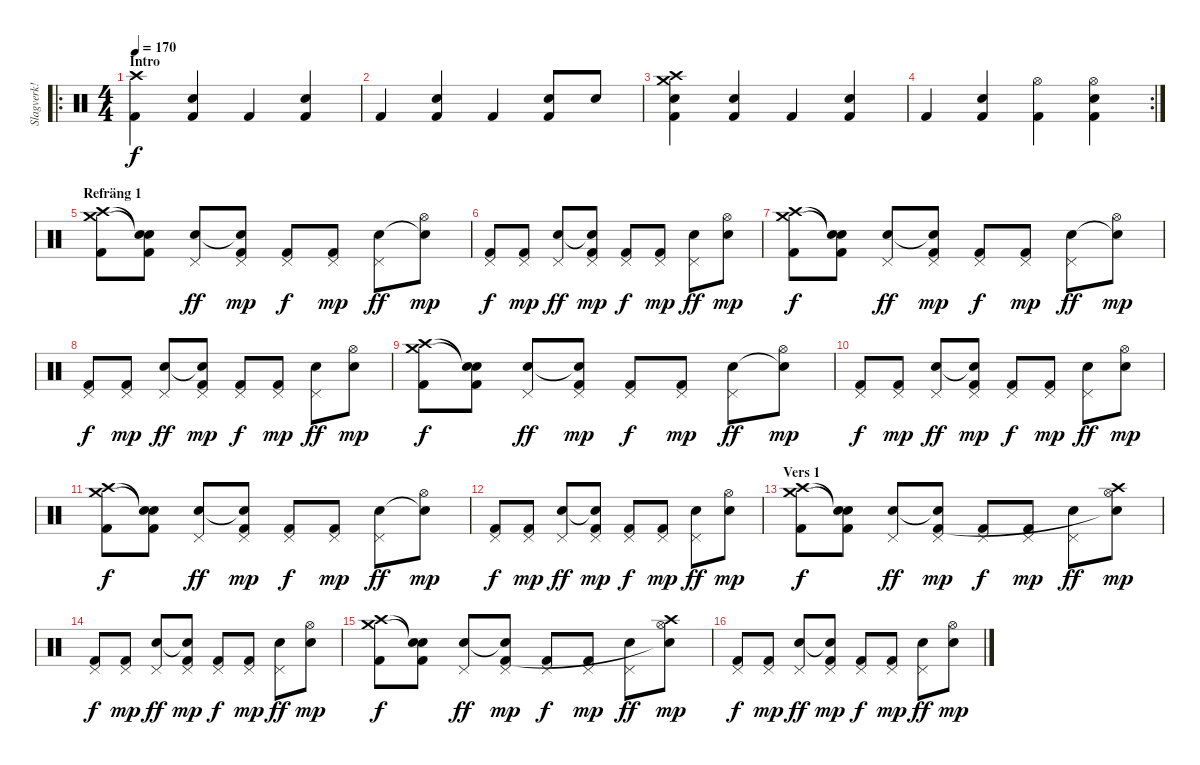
\track ("Slagverk!" "Slagverk!") {instrument percussion}
\staff {score}
\articulation defaults
\ro
\ts (4 4)
\section ("" "Intro")
\tempo 170
\clef neutral
\ks c
("Crash high (hit)" "Kick (hit) 2").4{dy f} ("Snare (hit) 2" "Kick (hit) 2").4 "Kick (hit) 2".4 ("Snare (hit) 2" "Kick (hit) 2").4 |
"Kick (hit) 2".4 ("Snare (hit) 2" "Kick (hit) 2").4 "Kick (hit) 2".4 ("Snare (hit) 2" "Kick (hit) 2").8 "Snare (hit) 2".8 |
("Crash medium (hit)" "Crash high (hit)" "Snare (hit) 2" "Kick (hit) 2").4 ("Snare (hit) 2" "Kick (hit) 2").4 "Kick (hit) 2".4 ("Snare (hit) 2" "Kick (hit) 2").4 |
\rc 2 "Kick (hit) 2".4
("Snare (hit) 2" "Kick (hit) 2").4 ("Hi-Hat (open)" "Kick (hit) 2").4 ("Hi-Hat (open)" "Snare (hit) 2" "Kick (hit) 2").4 |
\section ("" "Refräng 1")
("Crash medium (hit)" "Crash high (hit)" "Kick (hit) 2").8 ("Snare (hit)"{t} "Snare (hit)"{t} "Kick (hit) 2").8 ("Pedal Hi-Hat (hit)" "Electric Snare (hit)").8{dy ff} ("Pedal Hi-Hat (hit)" "Snare (hit)"{t} "Kick (hit) 2").8{dy mp} ("Pedal Hi-Hat (hit)" "Kick (hit) 2").8{dy f} ("Pedal Hi-Hat (hit)" "Kick (hit) 2").8{dy mp} ("Pedal Hi-Hat (hit)" "Electric Snare (hit)").8{dy ff} ("Hi-Hat (open)" "Snare (hit)"{t}).8{dy mp} |
("Pedal Hi-Hat (hit)" "Kick (hit) 2").8{dy f} ("Pedal Hi-Hat (hit)" "Kick (hit) 2").8{dy mp} ("Pedal Hi-Hat (hit)" "Electric Snare (hit)").8{dy ff} ("Pedal Hi-Hat (hit)" "Snare (hit)"{t} "Kick (hit) 2").8{dy mp} ("Pedal Hi-Hat (hit)" "Kick (hit) 2").8{dy f} ("Pedal Hi-Hat (hit)" "Kick (hit) 2").8{dy mp} ("Pedal Hi-Hat (hit)" "Electric Snare (hit)").8{dy ff} ("Hi-Hat (open)" "Electric Snare (hit)").8{dy mp} |
("Crash medium (hit)" "Crash high (hit)" "Kick (hit) 2").8{dy f} ("Snare (hit)"{t} "Snare (hit)"{t} "Kick (hit) 2").8 ("Pedal Hi-Hat (hit)" "Electric Snare (hit)").8{dy ff} ("Pedal Hi-Hat (hit)" "Snare (hit)"{t} "Kick (hit) 2").8{dy mp} ("Pedal Hi-Hat (hit)" "Kick (hit) 2").8{dy f} ("Pedal Hi-Hat (hit)" "Kick (hit) 2").8{dy mp} ("Pedal Hi-Hat (hit)" "Electric Snare (hit)").8{dy ff} ("Hi-Hat (open)" "Snare (hit)"{t}).8{dy mp} |
("Pedal Hi-Hat (hit)" "Kick (hit) 2").8{dy f} ("Pedal Hi-Hat (hit)" "Kick (hit) 2").8{dy mp} ("Pedal Hi-Hat (hit)" "Electric Snare (hit)").8{dy ff} ("Pedal Hi-Hat (hit)" "Snare (hit)"{t} "Kick (hit) 2").8{dy mp} ("Pedal Hi-Hat (hit)" "Kick (hit) 2").8{dy f} ("Pedal Hi-Hat (hit)" "Kick (hit) 2").8{dy mp} ("Pedal Hi-Hat (hit)" "Electric Snare (hit)").8{dy ff} ("Hi-Hat (open)" "Electric Snare (hit)").8{dy mp} |
("Crash medium (hit)" "Crash high (hit)" "Kick (hit) 2").8{dy f} ("Snare (hit)"{t} "Snare (hit)"{t} "Kick (hit) 2").8 ("Pedal Hi-Hat (hit)" "Electric Snare (hit)").8{dy ff} ("Pedal Hi-Hat (hit)" "Snare (hit)"{t} "Kick (hit) 2").8{dy mp} ("Pedal Hi-Hat (hit)" "Kick (hit) 2").8{dy f} ("Pedal Hi-Hat (hit)" "Kick (hit) 2").8{dy mp} ("Pedal Hi-Hat (hit)" "Electric Snare (hit)").8{dy ff} ("Hi-Hat (open)" "Snare (hit)"{t}).8{dy mp} |
("Pedal Hi-Hat (hit)" "Kick (hit) 2").8{dy f} ("Pedal Hi-Hat (hit)" "Kick (hit) 2").8{dy mp} ("Pedal Hi-Hat (hit)" "Electric Snare (hit)").8{dy ff} ("Pedal Hi-Hat (hit)" "Snare (hit)"{t} "Kick (hit) 2").8{dy mp} ("Pedal Hi-Hat (hit)" "Kick (hit) 2").8{dy f} ("Pedal Hi-Hat (hit)" "Kick (hit) 2").8{dy mp} ("Pedal Hi-Hat (hit)" "Electric Snare (hit)").8{dy ff} ("Hi-Hat (open)" "Electric Snare (hit)").8{dy mp} |
("Crash medium (hit)" "Crash high (hit)" "Kick (hit) 2").8{dy f} ("Snare (hit)"{t} "Snare (hit)"{t} "Kick (hit) 2").8 ("Pedal Hi-Hat (hit)" "Electric Snare (hit)").8{dy ff} ("Pedal Hi-Hat (hit)" "Snare (hit)"{t} "Kick (hit) 2").8{dy mp} ("Pedal Hi-Hat (hit)" "Kick (hit) 2").8{dy f} ("Pedal Hi-Hat (hit)" "Kick (hit) 2").8{dy mp} ("Pedal Hi-Hat (hit)" "Electric Snare (hit)").8{dy ff} ("Hi-Hat (open)" "Snare (hit)"{t}).8{dy mp} |
("Pedal Hi-Hat (hit)" "Kick (hit) 2").8{dy f} ("Pedal Hi-Hat (hit)" "Kick (hit) 2").8{dy mp} ("Pedal Hi-Hat (hit)" "Electric Snare (hit)").8{dy ff} ("Pedal Hi-Hat (hit)" "Snare (hit)"{t} "Kick (hit) 2").8{dy mp} ("Pedal Hi-Hat (hit)" "Kick (hit) 2").8{dy f} ("Pedal Hi-Hat (hit)" "Kick (hit) 2").8{dy mp} ("Pedal Hi-Hat (hit)" "Electric Snare (hit)").8{dy ff} ("Hi-Hat (open)" "Electric Snare (hit)").8{dy mp} |
\section ("" "Vers 1")
("Crash medium (hit)" "Crash high (hit)" "Kick (hit) 2").8{dy f} ("Snare (hit)"{t} "Snare (hit)"{t} "Kick (hit) 2").8 ("Pedal Hi-Hat (hit)" "Electric Snare (hit)").8{dy ff} ("Pedal Hi-Hat (hit)" "Snare (hit)"{t} "Kick (hit) 2").8{dy mp} ("Pedal Hi-Hat (hit)" "Kick (hit) 2").8{dy f} ("Pedal Hi-Hat (hit)" "Kick (hit) 2").8{dy mp} ("Pedal Hi-Hat (hit)" "Electric Snare (hit)").8{dy ff} ("Crash high (hit)" "Hi-Hat (open)" "Snare (hit)"{t}).8{dy mp} |
("Pedal Hi-Hat (hit)" "Kick (hit) 2").8{dy f} ("Pedal Hi-Hat (hit)" "Kick (hit) 2").8{dy mp} ("Pedal Hi-Hat (hit)" "Electric Snare (hit)").8{dy ff} ("Pedal Hi-Hat (hit)" "Snare (hit)"{t} "Kick (hit) 2").8{dy mp} ("Pedal Hi-Hat (hit)" "Kick (hit) 2").8{dy f} ("Pedal Hi-Hat (hit)" "Kick (hit) 2").8{dy mp} ("Pedal Hi-Hat (hit)" "Electric Snare (hit)").8{dy ff} ("Hi-Hat (open)" "Electric Snare (hit)").8{dy mp} |
("Crash medium (hit)" "Crash high (hit)" "Kick (hit) 2").8{dy f} ("Snare (hit)"{t} "Snare (hit)"{t} "Kick (hit) 2").8 ("Pedal Hi-Hat (hit)" "Electric Snare (hit)").8{dy ff} ("Pedal Hi-Hat (hit)" "Snare (hit)"{t} "Kick (hit) 2").8{dy mp} ("Pedal Hi-Hat (hit)" "Kick (hit) 2").8{dy f} ("Pedal Hi-Hat (hit)" "Kick (hit) 2").8{dy mp} ("Pedal Hi-Hat (hit)" "Electric Snare (hit)").8{dy ff} ("Crash high (hit)" "Hi-Hat (open)" "Snare (hit)"{t}).8{dy mp} |
("Pedal Hi-Hat (hit)" "Kick (hit) 2").8{dy f} ("Pedal Hi-Hat (hit)" "Kick (hit) 2").8{dy mp} ("Pedal Hi-Hat (hit)" "Electric Snare (hit)").8{dy ff} ("Pedal Hi-Hat (hit)" "Snare (hit)"{t} "Kick (hit) 2").8{dy mp} ("Pedal Hi-Hat (hit)" "Kick (hit) 2").8{dy f} ("Pedal Hi-Hat (hit)" "Kick (hit) 2").8{dy mp} ("Pedal Hi-Hat (hit)" "Electric Snare (hit)").8{dy ff} ("Hi-Hat (open)" "Electric Snare (hit)").8{dy mp}
